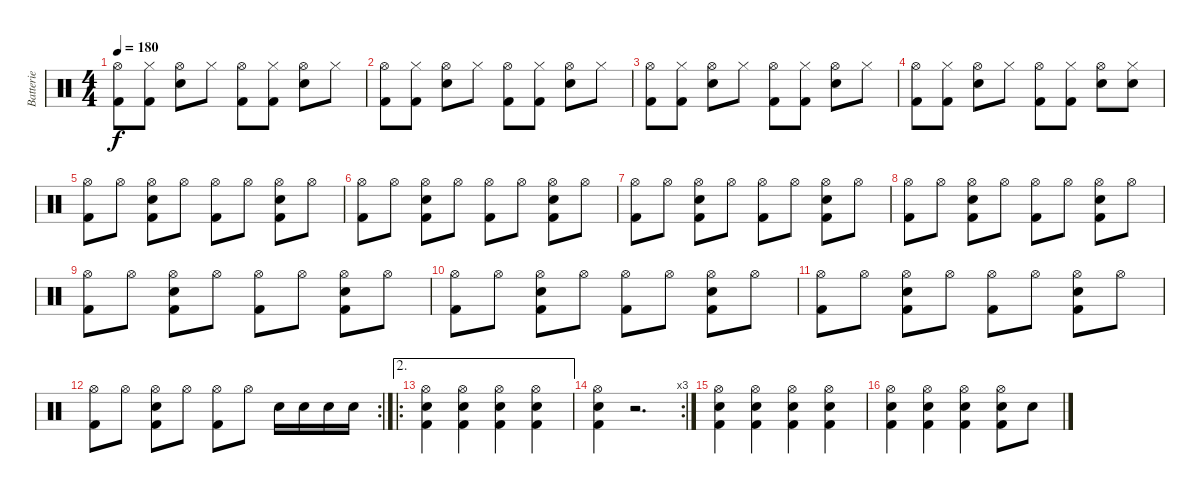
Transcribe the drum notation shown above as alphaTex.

\track ("Batterie" "Batterie") {instrument percussion}
\staff {score}
\articulation defaults
\ts (4 4)
\tempo 180
\clef neutral
\ks c
("Hi-Hat (open)" "Kick (hit) 2").8{dy f} ("Hi-Hat (closed)" "Kick (hit) 2").8 ("Hi-Hat (open)" "Electric Snare (hit)").8 "Hi-Hat (closed)".8 ("Hi-Hat (open)" "Kick (hit) 2").8 ("Hi-Hat (closed)" "Kick (hit) 2").8 ("Hi-Hat (open)" "Electric Snare (hit)").8 "Hi-Hat (closed)".8 |
("Hi-Hat (open)" "Kick (hit) 2").8 ("Hi-Hat (closed)" "Kick (hit) 2").8 ("Hi-Hat (open)" "Electric Snare (hit)").8 "Hi-Hat (closed)".8 ("Hi-Hat (open)" "Kick (hit) 2").8 ("Hi-Hat (closed)" "Kick (hit) 2").8 ("Hi-Hat (open)" "Electric Snare (hit)").8 "Hi-Hat (closed)".8 |
("Hi-Hat (open)" "Kick (hit) 2").8 ("Hi-Hat (closed)" "Kick (hit) 2").8 ("Hi-Hat (open)" "Electric Snare (hit)").8 "Hi-Hat (closed)".8 ("Hi-Hat (open)" "Kick (hit) 2").8 ("Hi-Hat (closed)" "Kick (hit) 2").8 ("Hi-Hat (open)" "Electric Snare (hit)").8 "Hi-Hat (closed)".8 |
("Hi-Hat (open)" "Kick (hit) 2").8 ("Hi-Hat (closed)" "Kick (hit) 2").8 ("Hi-Hat (open)" "Electric Snare (hit)").8 "Hi-Hat (closed)".8 ("Hi-Hat (open)" "Kick (hit) 2").8 ("Hi-Hat (closed)" "Kick (hit) 2").8 ("Hi-Hat (open)" "Electric Snare (hit)").8 ("Hi-Hat (closed)" "Electric Snare (hit)").8 |
("Hi-Hat (open)" "Kick (hit) 2").8 "Hi-Hat (open)".8 ("Hi-Hat (open)" "Electric Snare (hit)" "Kick (hit) 2").8 "Hi-Hat (open)".8 ("Hi-Hat (open)" "Kick (hit) 2").8 "Hi-Hat (open)".8 ("Hi-Hat (open)" "Electric Snare (hit)" "Kick (hit) 2").8 "Hi-Hat (open)".8 |
("Hi-Hat (open)" "Kick (hit) 2").8 "Hi-Hat (open)".8 ("Hi-Hat (open)" "Electric Snare (hit)" "Kick (hit) 2").8 "Hi-Hat (open)".8 ("Hi-Hat (open)" "Kick (hit) 2").8 "Hi-Hat (open)".8 ("Hi-Hat (open)" "Electric Snare (hit)" "Kick (hit) 2").8 "Hi-Hat (open)".8 |
("Hi-Hat (open)" "Kick (hit) 2").8 "Hi-Hat (open)".8 ("Hi-Hat (open)" "Electric Snare (hit)" "Kick (hit) 2").8 "Hi-Hat (open)".8 ("Hi-Hat (open)" "Kick (hit) 2").8 "Hi-Hat (open)".8 ("Hi-Hat (open)" "Electric Snare (hit)" "Kick (hit) 2").8 "Hi-Hat (open)".8 |
("Hi-Hat (open)" "Kick (hit) 2").8 "Hi-Hat (open)".8 ("Hi-Hat (open)" "Electric Snare (hit)" "Kick (hit) 2").8 "Hi-Hat (open)".8 ("Hi-Hat (open)" "Kick (hit) 2").8 "Hi-Hat (open)".8 ("Hi-Hat (open)" "Electric Snare (hit)" "Kick (hit) 2").8 "Hi-Hat (open)".8 |
("Hi-Hat (open)" "Kick (hit) 2").8 "Hi-Hat (open)".8 ("Hi-Hat (open)" "Electric Snare (hit)" "Kick (hit) 2").8 "Hi-Hat (open)".8 ("Hi-Hat (open)" "Kick (hit) 2").8 "Hi-Hat (open)".8 ("Hi-Hat (open)" "Electric Snare (hit)" "Kick (hit) 2").8 "Hi-Hat (open)".8 |
("Hi-Hat (open)" "Kick (hit) 2").8 "Hi-Hat (open)".8 ("Hi-Hat (open)" "Electric Snare (hit)" "Kick (hit) 2").8 "Hi-Hat (open)".8 ("Hi-Hat (open)" "Kick (hit) 2").8 "Hi-Hat (open)".8 ("Hi-Hat (open)" "Electric Snare (hit)" "Kick (hit) 2").8 "Hi-Hat (open)".8 |
("Hi-Hat (open)" "Kick (hit) 2").8 "Hi-Hat (open)".8 ("Hi-Hat (open)" "Electric Snare (hit)" "Kick (hit) 2").8 "Hi-Hat (open)".8 ("Hi-Hat (open)" "Kick (hit) 2").8 "Hi-Hat (open)".8 ("Hi-Hat (open)" "Electric Snare (hit)" "Kick (hit) 2").8 "Hi-Hat (open)".8 |
\rc 2
("Hi-Hat (open)" "Kick (hit) 2").8 "Hi-Hat (open)".8 ("Hi-Hat (open)" "Electric Snare (hit)" "Kick (hit) 2").8 "Hi-Hat (open)".8 ("Hi-Hat (open)" "Kick (hit) 2").8 "Hi-Hat (open)".8 "Electric Snare (hit)".16 "Electric Snare (hit)".16 "Electric Snare (hit)".16 "Electric Snare (hit)".16 |
\ae 2
\ro
("Electric Snare (hit)" "Hi-Hat (open)" "Kick (hit) 2").4 ("Electric Snare (hit)" "Hi-Hat (open)" "Kick (hit) 2").4 ("Electric Snare (hit)" "Hi-Hat (open)" "Kick (hit) 2").4 ("Electric Snare (hit)" "Hi-Hat (open)" "Kick (hit) 2").4 |
\rc 3
("Electric Snare (hit)" "Hi-Hat (open)" "Kick (hit) 2").4 r.2{d} |
("Electric Snare (hit)" "Hi-Hat (open)" "Kick (hit) 2").4 ("Electric Snare (hit)" "Hi-Hat (open)" "Kick (hit) 2").4 ("Electric Snare (hit)" "Hi-Hat (open)" "Kick (hit) 2").4 ("Electric Snare (hit)" "Hi-Hat (open)" "Kick (hit) 2").4 |
("Electric Snare (hit)" "Hi-Hat (open)" "Kick (hit) 2").4 ("Electric Snare (hit)" "Hi-Hat (open)" "Kick (hit) 2").4 ("Electric Snare (hit)" "Hi-Hat (open)" "Kick (hit) 2").4 ("Electric Snare (hit)" "Hi-Hat (open)" "Kick (hit) 2").8 "Electric Snare (hit)".8
